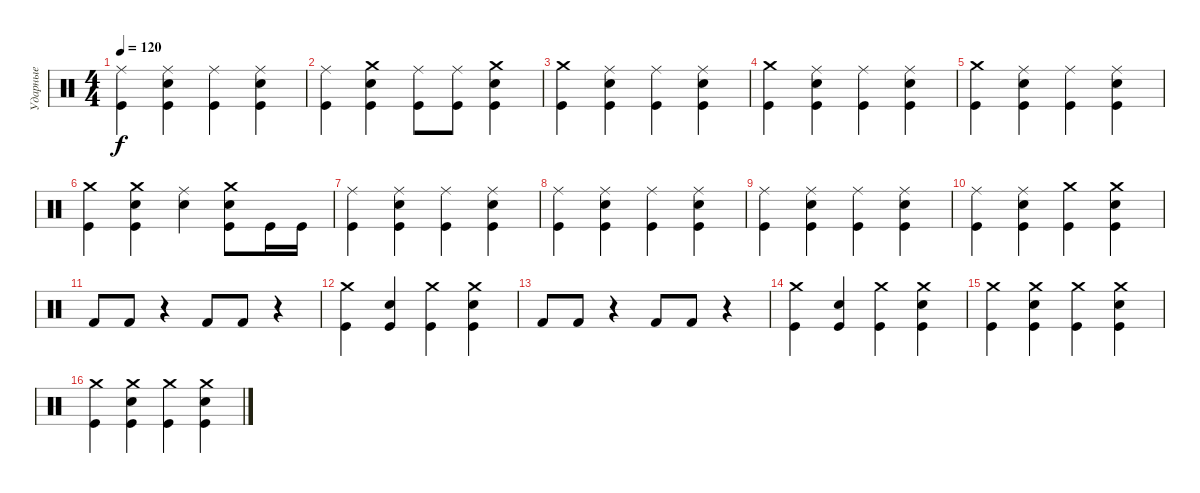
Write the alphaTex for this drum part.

\track ("Ударные" "Ударные") {instrument percussion}
\staff {score}
\articulation defaults
\ts (4 4)
\tempo 120
\clef neutral
\ks c
("Ride (middle)" "Kick (hit)").4{dy f} ("Ride (middle)" "Kick (hit)" "Snare (hit) 2").4 ("Ride (middle)" "Kick (hit)").4 ("Ride (middle)" "Kick (hit)" "Snare (hit) 2").4 |
("Ride (middle)" "Kick (hit)").4 ("Crash medium (hit)" "Kick (hit)" "Snare (hit) 2").4 ("Ride (middle)" "Kick (hit)").8 ("Ride (middle)" "Kick (hit)").8 ("Crash medium (hit)" "Kick (hit)" "Snare (hit) 2").4 |
("Crash medium (hit)" "Kick (hit)").4 ("Ride (middle)" "Kick (hit)" "Snare (hit) 2").4 ("Ride (middle)" "Kick (hit)").4 ("Ride (middle)" "Kick (hit)" "Snare (hit) 2").4 |
("Crash medium (hit)" "Kick (hit)").4 ("Ride (middle)" "Kick (hit)" "Snare (hit) 2").4 ("Ride (middle)" "Kick (hit)").4 ("Ride (middle)" "Kick (hit)" "Snare (hit) 2").4 |
("Crash medium (hit)" "Kick (hit)").4 ("Ride (middle)" "Kick (hit)" "Snare (hit) 2").4 ("Ride (middle)" "Kick (hit)").4 ("Ride (middle)" "Kick (hit)" "Snare (hit) 2").4 |
("Crash medium (hit)" "Kick (hit)").4 ("Crash medium (hit)" "Kick (hit)" "Snare (hit) 2").4 ("Ride (middle)" "Snare (hit) 2").4 ("Crash medium (hit)" "Kick (hit)" "Snare (hit) 2").8 "Kick (hit)".16 "Kick (hit)".16 |
("Ride (middle)" "Kick (hit)").4 ("Ride (middle)" "Kick (hit)" "Snare (hit) 2").4 ("Ride (middle)" "Kick (hit)").4 ("Ride (middle)" "Kick (hit)" "Snare (hit) 2").4 |
("Ride (middle)" "Kick (hit)").4 ("Ride (middle)" "Kick (hit)" "Snare (hit) 2").4 ("Ride (middle)" "Kick (hit)").4 ("Ride (middle)" "Kick (hit)" "Snare (hit) 2").4 |
("Ride (middle)" "Kick (hit)").4 ("Ride (middle)" "Kick (hit)" "Snare (hit) 2").4 ("Ride (middle)" "Kick (hit)").4 ("Ride (middle)" "Kick (hit)" "Snare (hit) 2").4 |
("Ride (middle)" "Kick (hit)").4 ("Ride (middle)" "Kick (hit)" "Snare (hit) 2").4 ("Crash medium (hit)" "Kick (hit)").4 ("Crash medium (hit)" "Kick (hit)" "Snare (hit) 2").4 |
"Kick (hit) 2".8 "Kick (hit) 2".8 r.4 "Kick (hit) 2".8 "Kick (hit) 2".8 r.4 |
("Crash medium (hit)" "Kick (hit)").4 ("Kick (hit)" "Snare (hit) 2").4 ("Crash medium (hit)" "Kick (hit)").4 ("Crash medium (hit)" "Kick (hit)" "Snare (hit) 2").4 |
"Kick (hit) 2".8 "Kick (hit) 2".8 r.4 "Kick (hit) 2".8 "Kick (hit) 2".8 r.4 |
("Crash medium (hit)" "Kick (hit)").4 ("Kick (hit)" "Snare (hit) 2").4 ("Crash medium (hit)" "Kick (hit)").4 ("Crash medium (hit)" "Kick (hit)" "Snare (hit) 2").4 |
("Crash medium (hit)" "Kick (hit)").4 ("Crash medium (hit)" "Kick (hit)" "Snare (hit) 2").4 ("Crash medium (hit)" "Kick (hit)").4 ("Crash medium (hit)" "Kick (hit)" "Snare (hit) 2").4 |
("Crash medium (hit)" "Kick (hit)").4 ("Crash medium (hit)" "Kick (hit)" "Snare (hit) 2").4 ("Crash medium (hit)" "Kick (hit)").4 ("Crash medium (hit)" "Kick (hit)" "Snare (hit) 2").4
